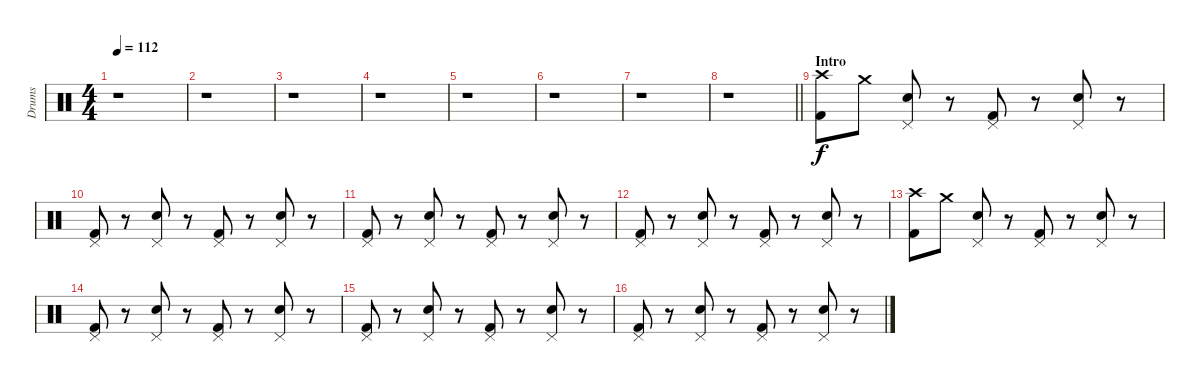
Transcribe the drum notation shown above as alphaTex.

\track ("Drums" "Drums") {instrument percussion}
\staff {score}
\articulation defaults
\ts (4 4)
\tempo 112
\clef neutral
\ks c
r.1{dy f} |
r.1 |
r.1 |
r.1 |
r.1 |
r.1 |
r.1 |
\barLineRight lightlight
r.1 |
\section ("" "Intro")
("Crash high (hit)" "Kick (hit) 2").8 "Crash medium (hit)".8 ("Pedal Hi-Hat (hit)" "Snare (hit) 2").8 r.8 ("Pedal Hi-Hat (hit)" "Kick (hit) 2").8 r.8 ("Pedal Hi-Hat (hit)" "Snare (hit) 2").8 r.8 |
("Pedal Hi-Hat (hit)" "Kick (hit) 2").8 r.8 ("Pedal Hi-Hat (hit)" "Snare (hit) 2").8 r.8 ("Pedal Hi-Hat (hit)" "Kick (hit) 2").8 r.8 ("Pedal Hi-Hat (hit)" "Snare (hit) 2").8 r.8 |
("Pedal Hi-Hat (hit)" "Kick (hit) 2").8 r.8 ("Pedal Hi-Hat (hit)" "Snare (hit) 2").8 r.8 ("Pedal Hi-Hat (hit)" "Kick (hit) 2").8 r.8 ("Pedal Hi-Hat (hit)" "Snare (hit) 2").8 r.8 |
("Pedal Hi-Hat (hit)" "Kick (hit) 2").8 r.8 ("Pedal Hi-Hat (hit)" "Snare (hit) 2").8 r.8 ("Pedal Hi-Hat (hit)" "Kick (hit) 2").8 r.8 ("Pedal Hi-Hat (hit)" "Snare (hit) 2").8 r.8 |
("Crash high (hit)" "Kick (hit) 2").8 "Crash medium (hit)".8 ("Pedal Hi-Hat (hit)" "Snare (hit) 2").8 r.8 ("Pedal Hi-Hat (hit)" "Kick (hit) 2").8 r.8 ("Pedal Hi-Hat (hit)" "Snare (hit) 2").8 r.8 |
("Pedal Hi-Hat (hit)" "Kick (hit) 2").8 r.8 ("Pedal Hi-Hat (hit)" "Snare (hit) 2").8 r.8 ("Pedal Hi-Hat (hit)" "Kick (hit) 2").8 r.8 ("Pedal Hi-Hat (hit)" "Snare (hit) 2").8 r.8 |
("Pedal Hi-Hat (hit)" "Kick (hit) 2").8 r.8 ("Pedal Hi-Hat (hit)" "Snare (hit) 2").8 r.8 ("Pedal Hi-Hat (hit)" "Kick (hit) 2").8 r.8 ("Pedal Hi-Hat (hit)" "Snare (hit) 2").8 r.8 |
("Pedal Hi-Hat (hit)" "Kick (hit) 2").8 r.8 ("Pedal Hi-Hat (hit)" "Snare (hit) 2").8 r.8 ("Pedal Hi-Hat (hit)" "Kick (hit) 2").8 r.8 ("Pedal Hi-Hat (hit)" "Snare (hit) 2").8 r.8
